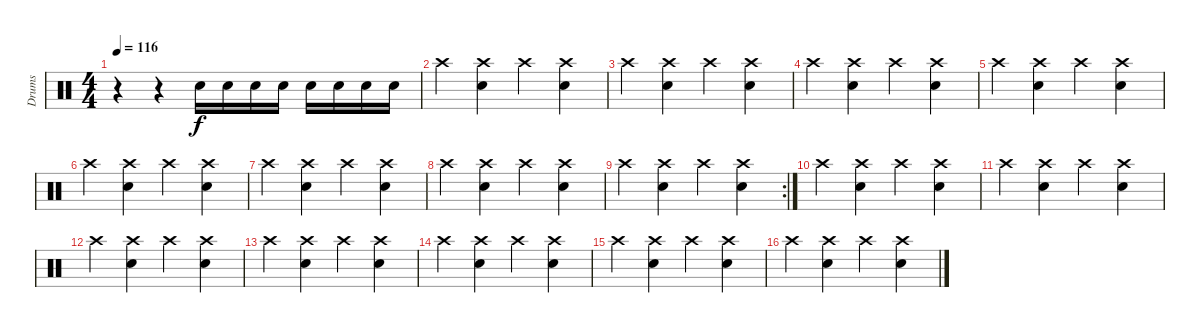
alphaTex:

\track ("Drums" "Drums") {instrument percussion}
\staff {score}
\articulation defaults
\ts (4 4)
\tempo 116
\clef neutral
\ks c
r.4{dy f} r.4 "Electric Snare (hit)".16 "Electric Snare (hit)".16 "Electric Snare (hit)".16 "Electric Snare (hit)".16 "Electric Snare (hit)".16 "Electric Snare (hit)".16 "Electric Snare (hit)".16 "Electric Snare (hit)".16 |
"Crash high (hit)".4 ("Crash high (hit)" "Electric Snare (hit)").4 "Crash high (hit)".4 ("Crash high (hit)" "Electric Snare (hit)").4 |
"Crash high (hit)".4 ("Crash high (hit)" "Electric Snare (hit)").4 "Crash high (hit)".4 ("Crash high (hit)" "Electric Snare (hit)").4 |
"Crash high (hit)".4 ("Crash high (hit)" "Electric Snare (hit)").4 "Crash high (hit)".4 ("Crash high (hit)" "Electric Snare (hit)").4 |
"Crash high (hit)".4 ("Crash high (hit)" "Electric Snare (hit)").4 "Crash high (hit)".4 ("Crash high (hit)" "Electric Snare (hit)").4 |
"Crash high (hit)".4 ("Crash high (hit)" "Electric Snare (hit)").4 "Crash high (hit)".4 ("Crash high (hit)" "Electric Snare (hit)").4 |
"Crash high (hit)".4 ("Crash high (hit)" "Electric Snare (hit)").4 "Crash high (hit)".4 ("Crash high (hit)" "Electric Snare (hit)").4 |
"Crash high (hit)".4 ("Crash high (hit)" "Electric Snare (hit)").4 "Crash high (hit)".4 ("Crash high (hit)" "Electric Snare (hit)").4 |
\rc 2 "Crash high (hit)".4
("Crash high (hit)" "Electric Snare (hit)").4 "Crash high (hit)".4 ("Crash high (hit)" "Electric Snare (hit)").4 |
"Crash high (hit)".4 ("Crash high (hit)" "Electric Snare (hit)").4 "Crash high (hit)".4 ("Crash high (hit)" "Electric Snare (hit)").4 |
"Crash high (hit)".4 ("Crash high (hit)" "Electric Snare (hit)").4 "Crash high (hit)".4 ("Crash high (hit)" "Electric Snare (hit)").4 |
"Crash high (hit)".4 ("Crash high (hit)" "Electric Snare (hit)").4 "Crash high (hit)".4 ("Crash high (hit)" "Electric Snare (hit)").4 |
"Crash high (hit)".4 ("Crash high (hit)" "Electric Snare (hit)").4 "Crash high (hit)".4 ("Crash high (hit)" "Electric Snare (hit)").4 |
"Crash high (hit)".4 ("Crash high (hit)" "Electric Snare (hit)").4 "Crash high (hit)".4 ("Crash high (hit)" "Electric Snare (hit)").4 |
"Crash high (hit)".4 ("Crash high (hit)" "Electric Snare (hit)").4 "Crash high (hit)".4 ("Crash high (hit)" "Electric Snare (hit)").4 |
"Crash high (hit)".4 ("Crash high (hit)" "Electric Snare (hit)").4 "Crash high (hit)".4 ("Crash high (hit)" "Electric Snare (hit)").4
